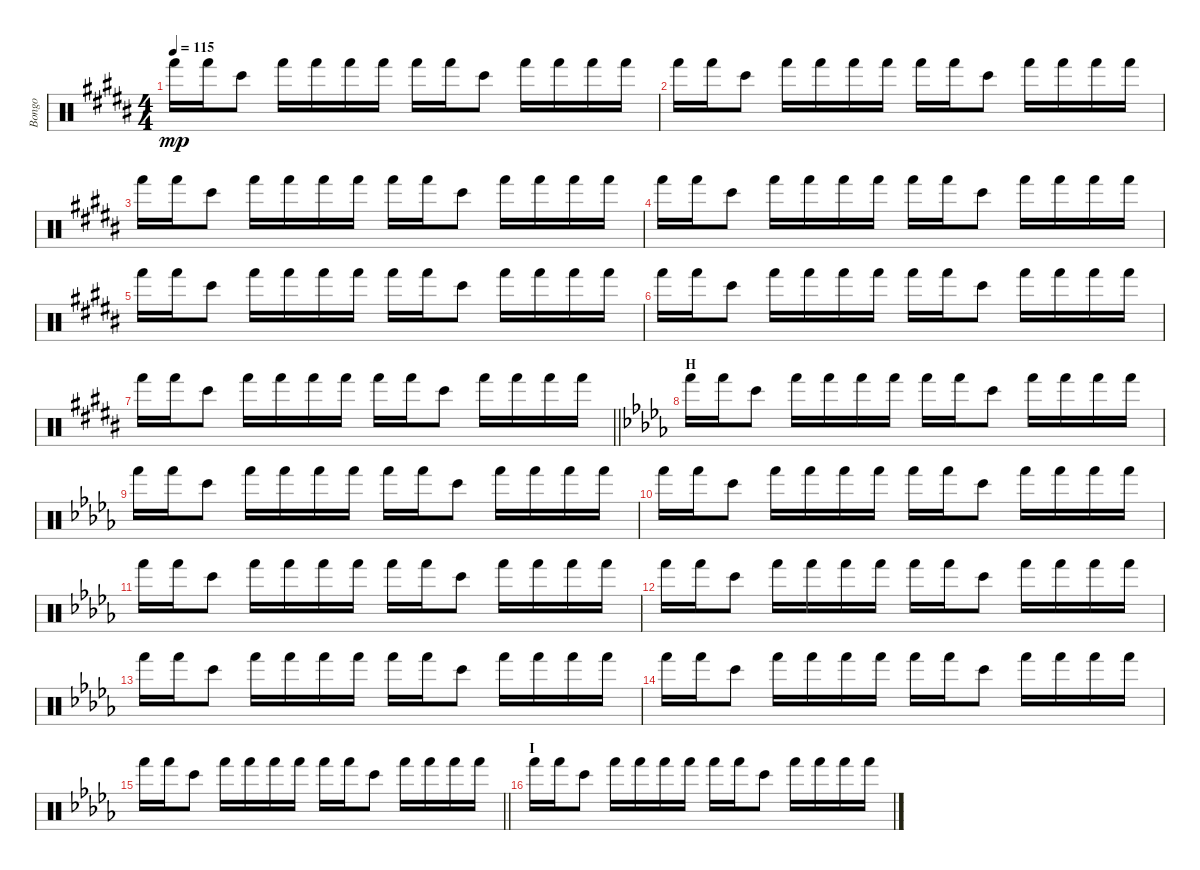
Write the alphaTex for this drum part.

\track ("Bongo" "Bongo") {instrument percussion}
\staff {score}
\articulation defaults
\ts (4 4)
\tempo 115
\clef neutral
\ks b "Hand (hit)".16{dy mp} "Hand (hit)".16 "Bongo High (hit)".8 "Hand (hit)".16 "Hand (hit)".16 "Hand (hit)".16 "Hand (hit)".16 "Hand (hit)".16 "Hand (hit)".16 "Bongo High (hit)".8 "Hand (hit)".16 "Hand (hit)".16 "Hand (hit)".16 "Hand (hit)".16
|
"Hand (hit)".16 "Hand (hit)".16 "Bongo High (hit)".8 "Hand (hit)".16 "Hand (hit)".16 "Hand (hit)".16 "Hand (hit)".16 "Hand (hit)".16 "Hand (hit)".16 "Bongo High (hit)".8 "Hand (hit)".16 "Hand (hit)".16 "Hand (hit)".16 "Hand (hit)".16 |
"Hand (hit)".16 "Hand (hit)".16 "Bongo High (hit)".8 "Hand (hit)".16 "Hand (hit)".16 "Hand (hit)".16 "Hand (hit)".16 "Hand (hit)".16 "Hand (hit)".16 "Bongo High (hit)".8 "Hand (hit)".16 "Hand (hit)".16 "Hand (hit)".16 "Hand (hit)".16 |
"Hand (hit)".16 "Hand (hit)".16 "Bongo High (hit)".8 "Hand (hit)".16 "Hand (hit)".16 "Hand (hit)".16 "Hand (hit)".16 "Hand (hit)".16 "Hand (hit)".16 "Bongo High (hit)".8 "Hand (hit)".16 "Hand (hit)".16 "Hand (hit)".16 "Hand (hit)".16 |
"Hand (hit)".16 "Hand (hit)".16 "Bongo High (hit)".8 "Hand (hit)".16 "Hand (hit)".16 "Hand (hit)".16 "Hand (hit)".16 "Hand (hit)".16 "Hand (hit)".16 "Bongo High (hit)".8 "Hand (hit)".16 "Hand (hit)".16 "Hand (hit)".16 "Hand (hit)".16 |
"Hand (hit)".16 "Hand (hit)".16 "Bongo High (hit)".8 "Hand (hit)".16 "Hand (hit)".16 "Hand (hit)".16 "Hand (hit)".16 "Hand (hit)".16 "Hand (hit)".16 "Bongo High (hit)".8 "Hand (hit)".16 "Hand (hit)".16 "Hand (hit)".16 "Hand (hit)".16 |
\barLineRight lightlight "Hand (hit)".16 "Hand (hit)".16 "Bongo High (hit)".8 "Hand (hit)".16 "Hand (hit)".16 "Hand (hit)".16 "Hand (hit)".16 "Hand (hit)".16 "Hand (hit)".16 "Bongo High (hit)".8 "Hand (hit)".16 "Hand (hit)".16 "Hand (hit)".16 "Hand (hit)".16
|
\section ("" "H")
\ks db "Hand (hit)".16 "Hand (hit)".16 "Bongo High (hit)".8 "Hand (hit)".16 "Hand (hit)".16 "Hand (hit)".16 "Hand (hit)".16 "Hand (hit)".16 "Hand (hit)".16 "Bongo High (hit)".8 "Hand (hit)".16 "Hand (hit)".16 "Hand (hit)".16 "Hand (hit)".16
|
"Hand (hit)".16 "Hand (hit)".16 "Bongo High (hit)".8 "Hand (hit)".16 "Hand (hit)".16 "Hand (hit)".16 "Hand (hit)".16 "Hand (hit)".16 "Hand (hit)".16 "Bongo High (hit)".8 "Hand (hit)".16 "Hand (hit)".16 "Hand (hit)".16 "Hand (hit)".16 |
"Hand (hit)".16 "Hand (hit)".16 "Bongo High (hit)".8 "Hand (hit)".16 "Hand (hit)".16 "Hand (hit)".16 "Hand (hit)".16 "Hand (hit)".16 "Hand (hit)".16 "Bongo High (hit)".8 "Hand (hit)".16 "Hand (hit)".16 "Hand (hit)".16 "Hand (hit)".16 |
"Hand (hit)".16 "Hand (hit)".16 "Bongo High (hit)".8 "Hand (hit)".16 "Hand (hit)".16 "Hand (hit)".16 "Hand (hit)".16 "Hand (hit)".16 "Hand (hit)".16 "Bongo High (hit)".8 "Hand (hit)".16 "Hand (hit)".16 "Hand (hit)".16 "Hand (hit)".16 |
"Hand (hit)".16 "Hand (hit)".16 "Bongo High (hit)".8 "Hand (hit)".16 "Hand (hit)".16 "Hand (hit)".16 "Hand (hit)".16 "Hand (hit)".16 "Hand (hit)".16 "Bongo High (hit)".8 "Hand (hit)".16 "Hand (hit)".16 "Hand (hit)".16 "Hand (hit)".16 |
"Hand (hit)".16 "Hand (hit)".16 "Bongo High (hit)".8 "Hand (hit)".16 "Hand (hit)".16 "Hand (hit)".16 "Hand (hit)".16 "Hand (hit)".16 "Hand (hit)".16 "Bongo High (hit)".8 "Hand (hit)".16 "Hand (hit)".16 "Hand (hit)".16 "Hand (hit)".16 |
"Hand (hit)".16 "Hand (hit)".16 "Bongo High (hit)".8 "Hand (hit)".16 "Hand (hit)".16 "Hand (hit)".16 "Hand (hit)".16 "Hand (hit)".16 "Hand (hit)".16 "Bongo High (hit)".8 "Hand (hit)".16 "Hand (hit)".16 "Hand (hit)".16 "Hand (hit)".16 |
\barLineRight lightlight "Hand (hit)".16 "Hand (hit)".16 "Bongo High (hit)".8 "Hand (hit)".16 "Hand (hit)".16 "Hand (hit)".16 "Hand (hit)".16 "Hand (hit)".16 "Hand (hit)".16 "Bongo High (hit)".8 "Hand (hit)".16 "Hand (hit)".16 "Hand (hit)".16 "Hand (hit)".16
|
\section ("" "I")
"Hand (hit)".16 "Hand (hit)".16 "Bongo High (hit)".8 "Hand (hit)".16 "Hand (hit)".16 "Hand (hit)".16 "Hand (hit)".16 "Hand (hit)".16 "Hand (hit)".16 "Bongo High (hit)".8 "Hand (hit)".16 "Hand (hit)".16 "Hand (hit)".16 "Hand (hit)".16
